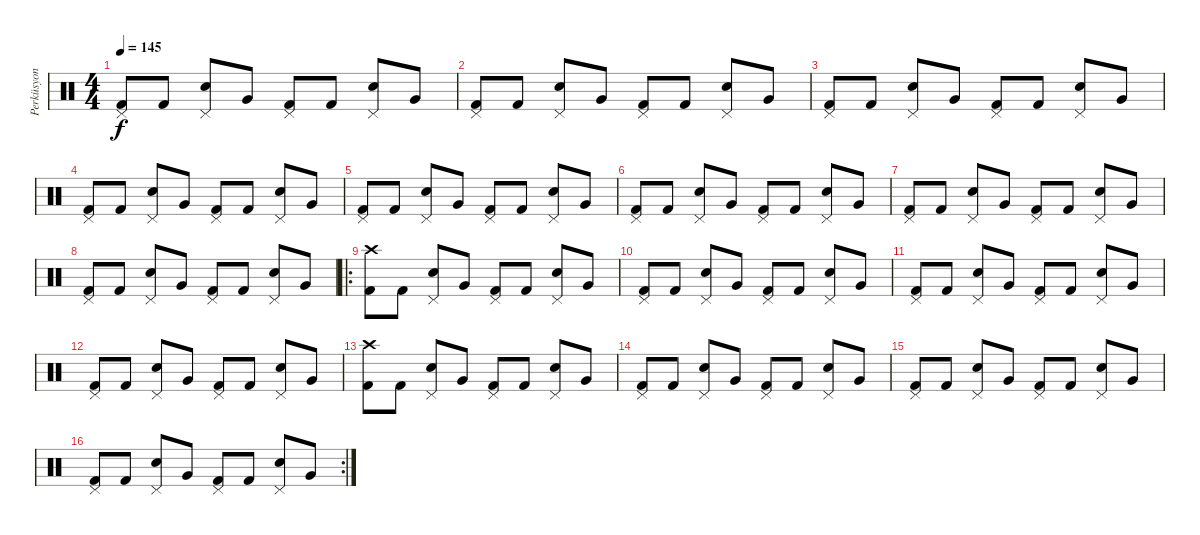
\track ("Perküsyon" "Perküsyon") {instrument percussion}
\staff {score}
\articulation defaults
\ts (4 4)
\tempo 145
\clef neutral
\ks c
("Pedal Hi-Hat (hit)" "Kick (hit) 2").8{dy f} "Kick (hit) 2".8 ("Pedal Hi-Hat (hit)" "Snare (hit) 2").8 "Very Low Tom (hit)".8 ("Pedal Hi-Hat (hit)" "Kick (hit) 2").8 "Kick (hit) 2".8 ("Pedal Hi-Hat (hit)" "Snare (hit) 2").8 "Very Low Tom (hit)".8 |
("Pedal Hi-Hat (hit)" "Kick (hit) 2").8 "Kick (hit) 2".8 ("Pedal Hi-Hat (hit)" "Snare (hit) 2").8 "Very Low Tom (hit)".8 ("Pedal Hi-Hat (hit)" "Kick (hit) 2").8 "Kick (hit) 2".8 ("Pedal Hi-Hat (hit)" "Snare (hit) 2").8 "Very Low Tom (hit)".8 |
("Pedal Hi-Hat (hit)" "Kick (hit) 2").8 "Kick (hit) 2".8 ("Pedal Hi-Hat (hit)" "Snare (hit) 2").8 "Very Low Tom (hit)".8 ("Pedal Hi-Hat (hit)" "Kick (hit) 2").8 "Kick (hit) 2".8 ("Pedal Hi-Hat (hit)" "Snare (hit) 2").8 "Very Low Tom (hit)".8 |
("Pedal Hi-Hat (hit)" "Kick (hit) 2").8 "Kick (hit) 2".8 ("Pedal Hi-Hat (hit)" "Snare (hit) 2").8 "Very Low Tom (hit)".8 ("Pedal Hi-Hat (hit)" "Kick (hit) 2").8 "Kick (hit) 2".8 ("Pedal Hi-Hat (hit)" "Snare (hit) 2").8 "Very Low Tom (hit)".8 |
("Pedal Hi-Hat (hit)" "Kick (hit) 2").8 "Kick (hit) 2".8 ("Pedal Hi-Hat (hit)" "Snare (hit) 2").8 "Very Low Tom (hit)".8 ("Pedal Hi-Hat (hit)" "Kick (hit) 2").8 "Kick (hit) 2".8 ("Pedal Hi-Hat (hit)" "Snare (hit) 2").8 "Very Low Tom (hit)".8 |
("Pedal Hi-Hat (hit)" "Kick (hit) 2").8 "Kick (hit) 2".8 ("Pedal Hi-Hat (hit)" "Snare (hit) 2").8 "Very Low Tom (hit)".8 ("Pedal Hi-Hat (hit)" "Kick (hit) 2").8 "Kick (hit) 2".8 ("Pedal Hi-Hat (hit)" "Snare (hit) 2").8 "Very Low Tom (hit)".8 |
("Pedal Hi-Hat (hit)" "Kick (hit) 2").8 "Kick (hit) 2".8 ("Pedal Hi-Hat (hit)" "Snare (hit) 2").8 "Very Low Tom (hit)".8 ("Pedal Hi-Hat (hit)" "Kick (hit) 2").8 "Kick (hit) 2".8 ("Pedal Hi-Hat (hit)" "Snare (hit) 2").8 "Very Low Tom (hit)".8 |
("Pedal Hi-Hat (hit)" "Kick (hit) 2").8 "Kick (hit) 2".8 ("Pedal Hi-Hat (hit)" "Snare (hit) 2").8 "Very Low Tom (hit)".8 ("Pedal Hi-Hat (hit)" "Kick (hit) 2").8 "Kick (hit) 2".8 ("Pedal Hi-Hat (hit)" "Snare (hit) 2").8 "Very Low Tom (hit)".8 |
\ro
("Crash high (hit)" "Kick (hit) 2").8 "Kick (hit) 2".8 ("Pedal Hi-Hat (hit)" "Snare (hit) 2").8 "Very Low Tom (hit)".8 ("Pedal Hi-Hat (hit)" "Kick (hit) 2").8 "Kick (hit) 2".8 ("Pedal Hi-Hat (hit)" "Snare (hit) 2").8 "Very Low Tom (hit)".8 |
("Pedal Hi-Hat (hit)" "Kick (hit) 2").8 "Kick (hit) 2".8 ("Pedal Hi-Hat (hit)" "Snare (hit) 2").8 "Very Low Tom (hit)".8 ("Pedal Hi-Hat (hit)" "Kick (hit) 2").8 "Kick (hit) 2".8 ("Pedal Hi-Hat (hit)" "Snare (hit) 2").8 "Very Low Tom (hit)".8 |
("Pedal Hi-Hat (hit)" "Kick (hit) 2").8 "Kick (hit) 2".8 ("Pedal Hi-Hat (hit)" "Snare (hit) 2").8 "Very Low Tom (hit)".8 ("Pedal Hi-Hat (hit)" "Kick (hit) 2").8 "Kick (hit) 2".8 ("Pedal Hi-Hat (hit)" "Snare (hit) 2").8 "Very Low Tom (hit)".8 |
("Pedal Hi-Hat (hit)" "Kick (hit) 2").8 "Kick (hit) 2".8 ("Pedal Hi-Hat (hit)" "Snare (hit) 2").8 "Very Low Tom (hit)".8 ("Pedal Hi-Hat (hit)" "Kick (hit) 2").8 "Kick (hit) 2".8 ("Pedal Hi-Hat (hit)" "Snare (hit) 2").8 "Very Low Tom (hit)".8 |
("Crash high (hit)" "Kick (hit) 2").8 "Kick (hit) 2".8 ("Pedal Hi-Hat (hit)" "Snare (hit) 2").8 "Very Low Tom (hit)".8 ("Pedal Hi-Hat (hit)" "Kick (hit) 2").8 "Kick (hit) 2".8 ("Pedal Hi-Hat (hit)" "Snare (hit) 2").8 "Very Low Tom (hit)".8 |
("Pedal Hi-Hat (hit)" "Kick (hit) 2").8 "Kick (hit) 2".8 ("Pedal Hi-Hat (hit)" "Snare (hit) 2").8 "Very Low Tom (hit)".8 ("Pedal Hi-Hat (hit)" "Kick (hit) 2").8 "Kick (hit) 2".8 ("Pedal Hi-Hat (hit)" "Snare (hit) 2").8 "Very Low Tom (hit)".8 |
("Pedal Hi-Hat (hit)" "Kick (hit) 2").8 "Kick (hit) 2".8 ("Pedal Hi-Hat (hit)" "Snare (hit) 2").8 "Very Low Tom (hit)".8 ("Pedal Hi-Hat (hit)" "Kick (hit) 2").8 "Kick (hit) 2".8 ("Pedal Hi-Hat (hit)" "Snare (hit) 2").8 "Very Low Tom (hit)".8 |
\rc 2
("Pedal Hi-Hat (hit)" "Kick (hit) 2").8 "Kick (hit) 2".8 ("Pedal Hi-Hat (hit)" "Snare (hit) 2").8 "Very Low Tom (hit)".8 ("Pedal Hi-Hat (hit)" "Kick (hit) 2").8 "Kick (hit) 2".8 ("Pedal Hi-Hat (hit)" "Snare (hit) 2").8 "Very Low Tom (hit)".8
